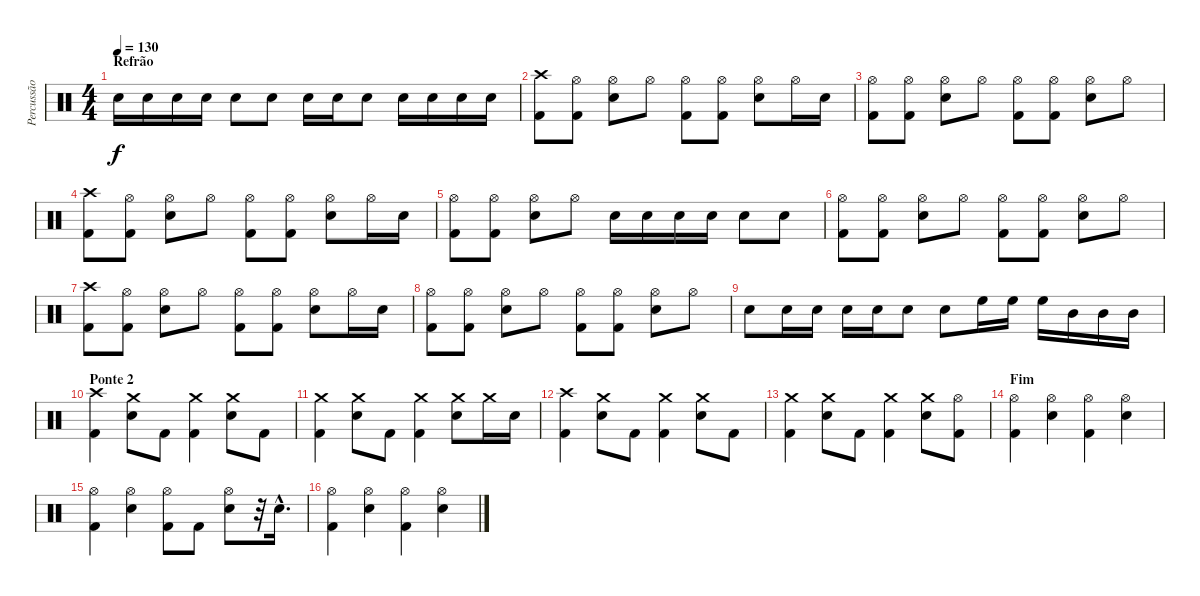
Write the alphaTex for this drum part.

\track ("Percussão" "Percussão") {instrument percussion}
\staff {score}
\articulation defaults
\ts (4 4)
\section ("" "Refrão")
\tempo 130
\clef neutral
\ks c "Electric Snare (hit)".16{dy f} "Electric Snare (hit)".16 "Electric Snare (hit)".16 "Electric Snare (hit)".16 "Electric Snare (hit)".8 "Electric Snare (hit)".8 "Electric Snare (hit)".16 "Electric Snare (hit)".16 "Electric Snare (hit)".8 "Electric Snare (hit)".16 "Electric Snare (hit)".16 "Electric Snare (hit)".16 "Electric Snare (hit)".16
|
("Crash high (hit)" "Kick (hit) 2").8 ("Hi-Hat (open)" "Kick (hit) 2").8 ("Hi-Hat (open)" "Electric Snare (hit)").8 "Hi-Hat (open)".8 ("Hi-Hat (open)" "Kick (hit) 2").8 ("Hi-Hat (open)" "Kick (hit) 2").8 ("Hi-Hat (open)" "Electric Snare (hit)").8 "Hi-Hat (open)".16 "Electric Snare (hit)".16 |
("Hi-Hat (open)" "Kick (hit) 2").8 ("Hi-Hat (open)" "Kick (hit) 2").8 ("Hi-Hat (open)" "Electric Snare (hit)").8 "Hi-Hat (open)".8 ("Hi-Hat (open)" "Kick (hit) 2").8 ("Hi-Hat (open)" "Kick (hit) 2").8 ("Hi-Hat (open)" "Electric Snare (hit)").8 "Hi-Hat (open)".8 |
("Crash high (hit)" "Kick (hit) 2").8 ("Hi-Hat (open)" "Kick (hit) 2").8 ("Hi-Hat (open)" "Electric Snare (hit)").8 "Hi-Hat (open)".8 ("Hi-Hat (open)" "Kick (hit) 2").8 ("Hi-Hat (open)" "Kick (hit) 2").8 ("Hi-Hat (open)" "Electric Snare (hit)").8 "Hi-Hat (open)".16 "Electric Snare (hit)".16 |
("Hi-Hat (open)" "Kick (hit) 2").8 ("Hi-Hat (open)" "Kick (hit) 2").8 ("Hi-Hat (open)" "Electric Snare (hit)").8 "Hi-Hat (open)".8 "Electric Snare (hit)".16 "Electric Snare (hit)".16 "Electric Snare (hit)".16 "Electric Snare (hit)".16 "Electric Snare (hit)".8 "Electric Snare (hit)".8 |
("Hi-Hat (open)" "Kick (hit) 2").8 ("Hi-Hat (open)" "Kick (hit) 2").8 ("Hi-Hat (open)" "Electric Snare (hit)").8 "Hi-Hat (open)".8 ("Hi-Hat (open)" "Kick (hit) 2").8 ("Hi-Hat (open)" "Kick (hit) 2").8 ("Hi-Hat (open)" "Electric Snare (hit)").8 "Hi-Hat (open)".8 |
("Crash high (hit)" "Kick (hit) 2").8 ("Hi-Hat (open)" "Kick (hit) 2").8 ("Hi-Hat (open)" "Electric Snare (hit)").8 "Hi-Hat (open)".8 ("Hi-Hat (open)" "Kick (hit) 2").8 ("Hi-Hat (open)" "Kick (hit) 2").8 ("Hi-Hat (open)" "Electric Snare (hit)").8 "Hi-Hat (open)".16 "Electric Snare (hit)".16 |
("Hi-Hat (open)" "Kick (hit) 2").8 ("Hi-Hat (open)" "Kick (hit) 2").8 ("Hi-Hat (open)" "Electric Snare (hit)").8 "Hi-Hat (open)".8 ("Hi-Hat (open)" "Kick (hit) 2").8 ("Hi-Hat (open)" "Kick (hit) 2").8 ("Hi-Hat (open)" "Electric Snare (hit)").8 "Hi-Hat (open)".8 |
"Electric Snare (hit)".8 "Electric Snare (hit)".16 "Electric Snare (hit)".16 "Electric Snare (hit)".16 "Electric Snare (hit)".16 "Electric Snare (hit)".8 "Electric Snare (hit)".8 "High Floor Tom (hit)".16 "High Floor Tom (hit)".16 "High Floor Tom (hit)".16 "Mid Tom (hit)".16 "Mid Tom (hit)".16 "Mid Tom (hit)".16 |
\section ("" "Ponte 2")
("Crash high (hit)" "Kick (hit) 2").4 ("Crash medium (hit)" "Electric Snare (hit)").8 "Kick (hit) 2".8 ("Crash medium (hit)" "Kick (hit) 2").4 ("Crash medium (hit)" "Electric Snare (hit)").8 "Kick (hit) 2".8 |
("Crash medium (hit)" "Kick (hit) 2").4 ("Crash medium (hit)" "Electric Snare (hit)").8 "Kick (hit) 2".8 ("Crash medium (hit)" "Kick (hit) 2").4 ("Crash medium (hit)" "Electric Snare (hit)").8 "Crash medium (hit)".16 "Electric Snare (hit)".16 |
("Crash high (hit)" "Kick (hit) 2").4 ("Crash medium (hit)" "Electric Snare (hit)").8 "Kick (hit) 2".8 ("Crash medium (hit)" "Kick (hit) 2").4 ("Crash medium (hit)" "Electric Snare (hit)").8 "Kick (hit) 2".8 |
("Crash medium (hit)" "Kick (hit) 2").4 ("Crash medium (hit)" "Electric Snare (hit)").8 "Kick (hit) 2".8 ("Crash medium (hit)" "Kick (hit) 2").4 ("Crash medium (hit)" "Electric Snare (hit)").8 ("Hi-Hat (open)" "Kick (hit) 2").8 |
\section ("" "Fim")
("Hi-Hat (open)" "Kick (hit) 2").4 ("Hi-Hat (open)" "Electric Snare (hit)").4 ("Hi-Hat (open)" "Kick (hit) 2").4 ("Hi-Hat (open)" "Electric Snare (hit)").4 |
("Hi-Hat (open)" "Kick (hit) 2").4 ("Hi-Hat (open)" "Electric Snare (hit)").4 ("Hi-Hat (open)" "Kick (hit) 2").8 "Kick (hit) 2".8 ("Hi-Hat (open)" "Electric Snare (hit)").8 r.32 "Electric Snare (hit)"{hac}.16{d} |
("Hi-Hat (open)" "Kick (hit) 2").4 ("Hi-Hat (open)" "Electric Snare (hit)").4 ("Hi-Hat (open)" "Kick (hit) 2").4 ("Hi-Hat (open)" "Electric Snare (hit)").4
